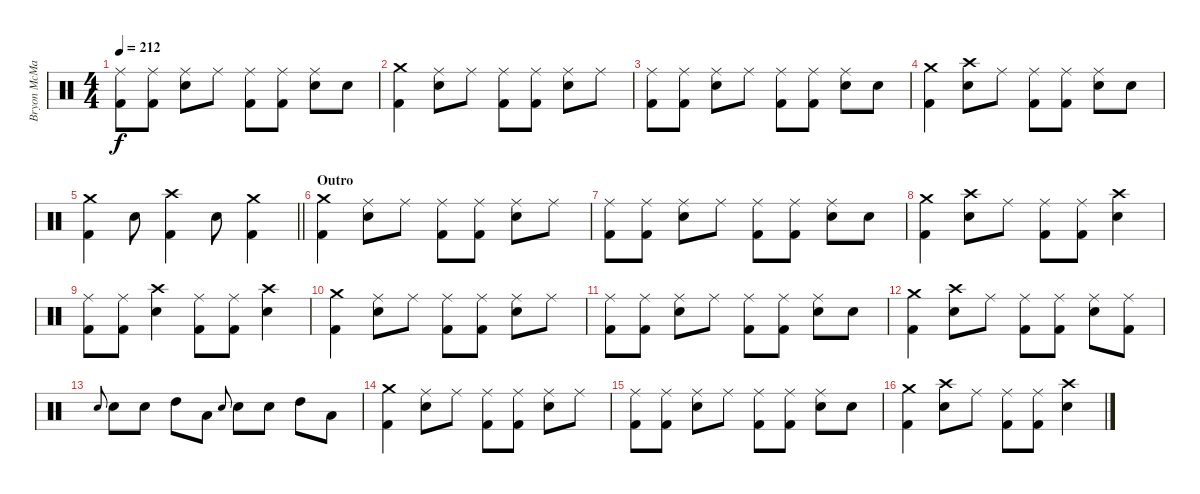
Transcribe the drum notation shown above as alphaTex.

\track ("Bryon McMackin - Drums" "Bryon McMa") {instrument percussion}
\staff {score}
\articulation defaults
\ts (4 4)
\tempo 212
\clef neutral
\ks c
("Ride (middle)" "Kick (hit) 2").8{dy f} ("Ride (middle)" "Kick (hit) 2").8 ("Ride (middle)" "Electric Snare (hit)").8 "Ride (middle)".8 ("Ride (middle)" "Kick (hit) 2").8 ("Ride (middle)" "Kick (hit) 2").8 ("Ride (middle)" "Electric Snare (hit)").8 "Electric Snare (hit)".8 |
("Crash medium (hit)" "Kick (hit) 2").4 ("Ride (middle)" "Electric Snare (hit)").8 "Ride (middle)".8 ("Ride (middle)" "Kick (hit) 2").8 ("Ride (middle)" "Kick (hit) 2").8 ("Ride (middle)" "Electric Snare (hit)").8 "Ride (middle)".8 |
("Ride (middle)" "Kick (hit) 2").8 ("Ride (middle)" "Kick (hit) 2").8 ("Ride (middle)" "Electric Snare (hit)").8 "Ride (middle)".8 ("Ride (middle)" "Kick (hit) 2").8 ("Ride (middle)" "Kick (hit) 2").8 ("Ride (middle)" "Electric Snare (hit)").8 "Electric Snare (hit)".8 |
("Crash medium (hit)" "Kick (hit) 2").4 ("Crash high (hit)" "Electric Snare (hit)").8 "Ride (middle)".8 ("Ride (middle)" "Kick (hit) 2").8 ("Ride (middle)" "Kick (hit) 2").8 ("Ride (middle)" "Electric Snare (hit)").8 "Electric Snare (hit)".8 |
\barLineRight lightlight
("Crash medium (hit)" "Kick (hit) 2").4 "Electric Snare (hit)".8 ("Crash high (hit)" "Kick (hit) 2").4 "Electric Snare (hit)".8 ("Crash medium (hit)" "Kick (hit) 2").4 |
\section ("" "Outro")
("Crash medium (hit)" "Kick (hit) 2").4 ("Ride (middle)" "Electric Snare (hit)").8 "Ride (middle)".8 ("Ride (middle)" "Kick (hit) 2").8 ("Ride (middle)" "Kick (hit) 2").8 ("Ride (middle)" "Electric Snare (hit)").8 "Ride (middle)".8 |
("Ride (middle)" "Kick (hit) 2").8 ("Ride (middle)" "Kick (hit) 2").8 ("Ride (middle)" "Electric Snare (hit)").8 "Ride (middle)".8 ("Ride (middle)" "Kick (hit) 2").8 ("Ride (middle)" "Kick (hit) 2").8 ("Ride (middle)" "Electric Snare (hit)").8 "Electric Snare (hit)".8 |
("Crash medium (hit)" "Kick (hit) 2").4 ("Crash high (hit)" "Electric Snare (hit)").8 "Ride (middle)".8 ("Ride (middle)" "Kick (hit) 2").8 ("Ride (middle)" "Kick (hit) 2").8 ("Crash high (hit)" "Electric Snare (hit)").4 |
("Ride (middle)" "Kick (hit) 2").8 ("Ride (middle)" "Kick (hit) 2").8 ("Crash high (hit)" "Electric Snare (hit)").4 ("Ride (middle)" "Kick (hit) 2").8 ("Ride (middle)" "Kick (hit) 2").8 ("Crash high (hit)" "Electric Snare (hit)").4 |
("Crash medium (hit)" "Kick (hit) 2").4 ("Ride (middle)" "Electric Snare (hit)").8 "Ride (middle)".8 ("Ride (middle)" "Kick (hit) 2").8 ("Ride (middle)" "Kick (hit) 2").8 ("Ride (middle)" "Electric Snare (hit)").8 "Ride (middle)".8 |
("Ride (middle)" "Kick (hit) 2").8 ("Ride (middle)" "Kick (hit) 2").8 ("Ride (middle)" "Electric Snare (hit)").8 "Ride (middle)".8 ("Ride (middle)" "Kick (hit) 2").8 ("Ride (middle)" "Kick (hit) 2").8 ("Ride (middle)" "Electric Snare (hit)").8 "Electric Snare (hit)".8 |
("Crash medium (hit)" "Kick (hit) 2").4 ("Crash high (hit)" "Electric Snare (hit)").8 "Ride (middle)".8 ("Ride (middle)" "Kick (hit) 2").8 ("Ride (middle)" "Kick (hit) 2").8 ("Ride (middle)" "Electric Snare (hit)").8 ("Ride (middle)" "Kick (hit) 2").8 |
"Electric Snare (hit)".8{gr onbeat} "Electric Snare (hit)".8 "Electric Snare (hit)".8 "High Tom (hit)".8 "Low Tom (hit)".8 "Electric Snare (hit)".8{gr onbeat} "Electric Snare (hit)".8 "Electric Snare (hit)".8 "High Tom (hit)".8 "Low Tom (hit)".8 |
("Crash medium (hit)" "Kick (hit) 2").4 ("Ride (middle)" "Electric Snare (hit)").8 "Ride (middle)".8 ("Ride (middle)" "Kick (hit) 2").8 ("Ride (middle)" "Kick (hit) 2").8 ("Ride (middle)" "Electric Snare (hit)").8 "Ride (middle)".8 |
("Ride (middle)" "Kick (hit) 2").8 ("Ride (middle)" "Kick (hit) 2").8 ("Ride (middle)" "Electric Snare (hit)").8 "Ride (middle)".8 ("Ride (middle)" "Kick (hit) 2").8 ("Ride (middle)" "Kick (hit) 2").8 ("Ride (middle)" "Electric Snare (hit)").8 "Electric Snare (hit)".8 |
("Crash medium (hit)" "Kick (hit) 2").4 ("Crash high (hit)" "Electric Snare (hit)").8 "Ride (middle)".8 ("Ride (middle)" "Kick (hit) 2").8 ("Ride (middle)" "Kick (hit) 2").8 ("Crash high (hit)" "Electric Snare (hit)").4
